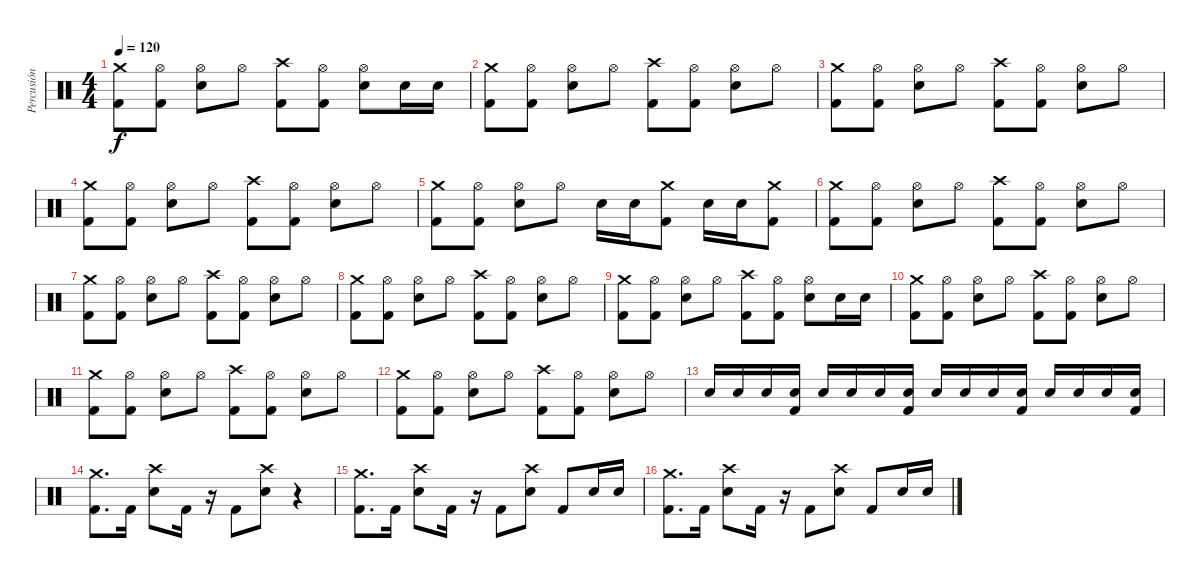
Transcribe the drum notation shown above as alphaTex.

\track ("Percusión" "Percusión") {instrument percussion}
\staff {score}
\articulation defaults
\ts (4 4)
\tempo 120
\clef neutral
\ks c
("Crash medium (hit)" "Kick (hit) 2").8{dy f} ("Hi-Hat (open)" "Kick (hit) 2").8 ("Hi-Hat (open)" "Snare (hit) 2").8 "Hi-Hat (open)".8 ("Crash high (hit)" "Kick (hit) 2").8 ("Hi-Hat (open)" "Kick (hit) 2").8 ("Hi-Hat (open)" "Snare (hit) 2").8 "Snare (hit) 2".16 "Snare (hit) 2".16 |
("Crash medium (hit)" "Kick (hit) 2").8 ("Hi-Hat (open)" "Kick (hit) 2").8 ("Hi-Hat (open)" "Snare (hit) 2").8 "Hi-Hat (open)".8 ("Crash high (hit)" "Kick (hit) 2").8 ("Hi-Hat (open)" "Kick (hit) 2").8 ("Hi-Hat (open)" "Snare (hit) 2").8 "Hi-Hat (open)".8 |
("Crash medium (hit)" "Kick (hit) 2").8 ("Hi-Hat (open)" "Kick (hit) 2").8 ("Hi-Hat (open)" "Snare (hit) 2").8 "Hi-Hat (open)".8 ("Crash high (hit)" "Kick (hit) 2").8 ("Hi-Hat (open)" "Kick (hit) 2").8 ("Hi-Hat (open)" "Snare (hit) 2").8 "Hi-Hat (open)".8 |
("Crash medium (hit)" "Kick (hit) 2").8 ("Hi-Hat (open)" "Kick (hit) 2").8 ("Hi-Hat (open)" "Snare (hit) 2").8 "Hi-Hat (open)".8 ("Crash high (hit)" "Kick (hit) 2").8 ("Hi-Hat (open)" "Kick (hit) 2").8 ("Hi-Hat (open)" "Snare (hit) 2").8 "Hi-Hat (open)".8 |
("Crash medium (hit)" "Kick (hit) 2").8 ("Hi-Hat (open)" "Kick (hit) 2").8 ("Hi-Hat (open)" "Snare (hit) 2").8 "Hi-Hat (open)".8 "Snare (hit) 2".16 "Snare (hit) 2".16 ("Crash medium (hit)" "Kick (hit) 2").8 "Snare (hit) 2".16 "Snare (hit) 2".16 ("Crash medium (hit)" "Kick (hit) 2").8 |
("Crash medium (hit)" "Kick (hit) 2").8 ("Hi-Hat (open)" "Kick (hit) 2").8 ("Hi-Hat (open)" "Snare (hit) 2").8 "Hi-Hat (open)".8 ("Crash high (hit)" "Kick (hit) 2").8 ("Hi-Hat (open)" "Kick (hit) 2").8 ("Hi-Hat (open)" "Snare (hit) 2").8 "Hi-Hat (open)".8 |
("Crash medium (hit)" "Kick (hit) 2").8 ("Hi-Hat (open)" "Kick (hit) 2").8 ("Hi-Hat (open)" "Snare (hit) 2").8 "Hi-Hat (open)".8 ("Crash high (hit)" "Kick (hit) 2").8 ("Hi-Hat (open)" "Kick (hit) 2").8 ("Hi-Hat (open)" "Snare (hit) 2").8 "Hi-Hat (open)".8 |
("Crash medium (hit)" "Kick (hit) 2").8 ("Hi-Hat (open)" "Kick (hit) 2").8 ("Hi-Hat (open)" "Snare (hit) 2").8 "Hi-Hat (open)".8 ("Crash high (hit)" "Kick (hit) 2").8 ("Hi-Hat (open)" "Kick (hit) 2").8 ("Hi-Hat (open)" "Snare (hit) 2").8 "Hi-Hat (open)".8 |
("Crash medium (hit)" "Kick (hit) 2").8 ("Hi-Hat (open)" "Kick (hit) 2").8 ("Hi-Hat (open)" "Snare (hit) 2").8 "Hi-Hat (open)".8 ("Crash high (hit)" "Kick (hit) 2").8 ("Hi-Hat (open)" "Kick (hit) 2").8 ("Hi-Hat (open)" "Snare (hit) 2").8 "Snare (hit) 2".16 "Snare (hit) 2".16 |
("Crash medium (hit)" "Kick (hit) 2").8 ("Hi-Hat (open)" "Kick (hit) 2").8 ("Hi-Hat (open)" "Snare (hit) 2").8 "Hi-Hat (open)".8 ("Crash high (hit)" "Kick (hit) 2").8 ("Hi-Hat (open)" "Kick (hit) 2").8 ("Hi-Hat (open)" "Snare (hit) 2").8 "Hi-Hat (open)".8 |
("Crash medium (hit)" "Kick (hit) 2").8 ("Hi-Hat (open)" "Kick (hit) 2").8 ("Hi-Hat (open)" "Snare (hit) 2").8 "Hi-Hat (open)".8 ("Crash high (hit)" "Kick (hit) 2").8 ("Hi-Hat (open)" "Kick (hit) 2").8 ("Hi-Hat (open)" "Snare (hit) 2").8 "Hi-Hat (open)".8 |
("Crash medium (hit)" "Kick (hit) 2").8 ("Hi-Hat (open)" "Kick (hit) 2").8 ("Hi-Hat (open)" "Snare (hit) 2").8 "Hi-Hat (open)".8 ("Crash high (hit)" "Kick (hit) 2").8 ("Hi-Hat (open)" "Kick (hit) 2").8 ("Hi-Hat (open)" "Snare (hit) 2").8 "Hi-Hat (open)".8 |
"Snare (hit) 2".16 "Snare (hit) 2".16 "Snare (hit) 2".16 ("Snare (hit) 2" "Kick (hit) 2").16 "Snare (hit) 2".16 "Snare (hit) 2".16 "Snare (hit) 2".16 ("Snare (hit) 2" "Kick (hit) 2").16 "Snare (hit) 2".16 "Snare (hit) 2".16 "Snare (hit) 2".16 ("Snare (hit) 2" "Kick (hit) 2").16 "Snare (hit) 2".16 "Snare (hit) 2".16 "Snare (hit) 2".16 ("Snare (hit) 2" "Kick (hit) 2").16 |
("Crash medium (hit)" "Kick (hit) 2").8{d} "Kick (hit) 2".16 ("Crash high (hit)" "Snare (hit) 2").8 "Kick (hit) 2".16 r.16 "Kick (hit) 2".8 ("Crash high (hit)" "Snare (hit) 2").8 r.4 |
("Crash medium (hit)" "Kick (hit) 2").8{d} "Kick (hit) 2".16 ("Crash high (hit)" "Snare (hit) 2").8 "Kick (hit) 2".16 r.16 "Kick (hit) 2".8 ("Crash high (hit)" "Snare (hit) 2").8 "Kick (hit) 2".8 "Snare (hit) 2".16 "Snare (hit) 2".16 |
("Crash medium (hit)" "Kick (hit) 2").8{d} "Kick (hit) 2".16 ("Crash high (hit)" "Snare (hit) 2").8 "Kick (hit) 2".16 r.16 "Kick (hit) 2".8 ("Crash high (hit)" "Snare (hit) 2").8 "Kick (hit) 2".8 "Snare (hit) 2".16 "Snare (hit) 2".16
